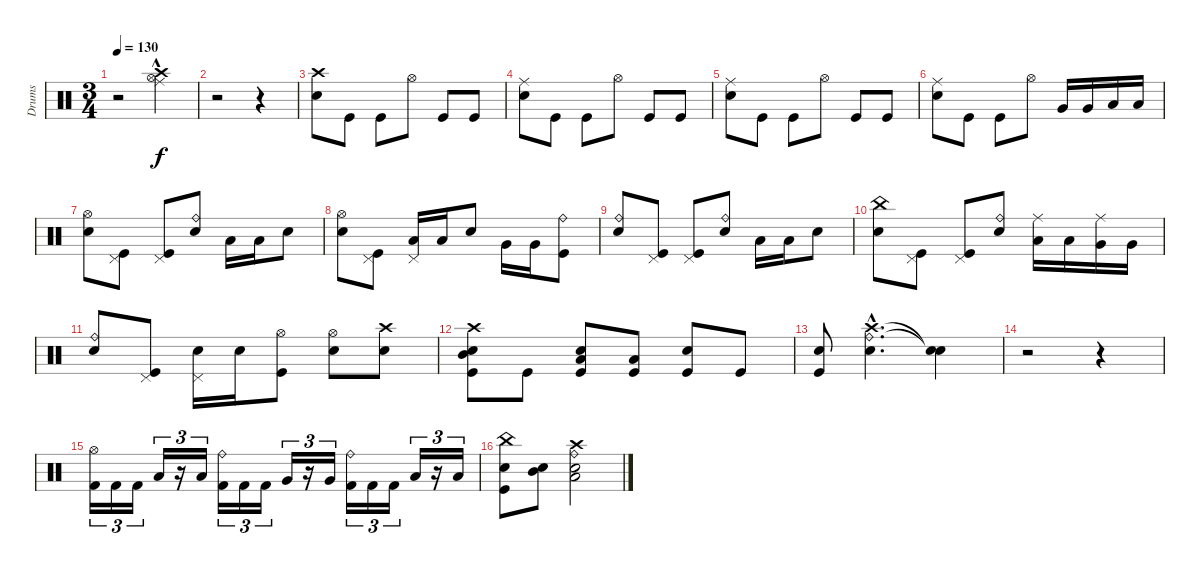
\track ("Drums" "Drums") {instrument percussion}
\staff {score}
\articulation defaults
\ts (3 4)
\tempo 130
\clef neutral
\ks c
r.2{dy f} ("Ride (middle)"{hac} "Hi-Hat (open)" "Crash high (hit)").4 |
r.2 r.4 |
("Crash high (hit)" "Snare (hit) 2").8 "Kick (hit)".8 "Kick (hit)".8 "Hi-Hat (open)".8 "Kick (hit)".8 "Kick (hit)".8 |
("Ride (middle)" "Snare (hit) 2").8 "Kick (hit)".8 "Kick (hit)".8 "Hi-Hat (open)".8 "Kick (hit)".8 "Kick (hit)".8 |
("Ride (middle)" "Snare (hit) 2").8 "Kick (hit)".8 "Kick (hit)".8 "Hi-Hat (open)".8 "Kick (hit)".8 "Kick (hit)".8 |
("Ride (middle)" "Snare (hit) 2").8 "Kick (hit)".8 "Kick (hit)".8 "Hi-Hat (open)".8 "Very Low Tom (hit)".16 "Very Low Tom (hit)".16 "Low Tom (hit)".16 "Low Tom (hit)".16 |
("Hi-Hat (open)" "Snare (hit) 2").8 ("Pedal Hi-Hat (hit)" "Kick (hit)").8 ("Pedal Hi-Hat (hit)" "Kick (hit)").8 ("Ride (bell)" "Snare (hit) 2").8 "Low Tom (hit)".16 "Low Tom (hit)".16 "Snare (hit) 2".8 |
("Hi-Hat (open)" "Snare (hit) 2").8 ("Pedal Hi-Hat (hit)" "Kick (hit)").8 ("Pedal Hi-Hat (hit)" "Low Tom (hit)").16 "Low Tom (hit)".16 "Snare (hit) 2".8 "Very Low Tom (hit)".16 "Very Low Tom (hit)".16 ("Ride (bell)" "Kick (hit)").8 |
("Ride (bell)" "Snare (hit) 2").8 ("Pedal Hi-Hat (hit)" "Kick (hit)").8 ("Pedal Hi-Hat (hit)" "Kick (hit)").8 ("Ride (bell)" "Snare (hit) 2").8 "Low Tom (hit)".16 "Low Tom (hit)".16 "Snare (hit) 2".8 |
("China (hit)" "Snare (hit) 2").8 ("Pedal Hi-Hat (hit)" "Kick (hit)").8 ("Pedal Hi-Hat (hit)" "Kick (hit)").8 ("Ride (bell)" "Snare (hit) 2").8 ("Ride (middle)" "Low Tom (hit)").16 "Low Tom (hit)".16 ("Ride (middle)" "Very Low Tom (hit)").16 "Very Low Tom (hit)".16 |
("Ride (bell)" "Snare (hit) 2").8 ("Pedal Hi-Hat (hit)" "Kick (hit)").8 ("Pedal Hi-Hat (hit)" "Snare (hit) 2").16 "Snare (hit) 2".16 ("Hi-Hat (open)" "Kick (hit)").8 ("Hi-Hat (open)" "Snare (hit) 2").8 ("Crash high (hit)" "Snare (hit) 2").8 |
("Crash high (hit)" "Mid Tom (hit)" "Snare (hit) 2" "Kick (hit)").8 "Kick (hit)".8 ("Low Tom (hit)" "Snare (hit) 2" "Kick (hit)").8 ("Low Tom (hit)" "Kick (hit)").8 ("Snare (hit) 2" "Kick (hit)").8 "Kick (hit)".8 |
("Kick (hit)" "Snare (hit) 2").8 ("Ride (bell)"{hac} "Crash high (hit)"{hac} "Snare (hit) 2"{hac}).4{d} ("Snare (hit)"{t} "Snare (hit)"{t}).4 |
r.2 r.4 |
("Hi-Hat (open)" "Kick (hit) 2").16{tu (3 2)} "Kick (hit) 2".16{tu (3 2)} "Kick (hit) 2".16{tu (3 2)} "Low Tom (hit)".16{tu (3 2)} r.16{tu (3 2)} "Low Tom (hit)".16{tu (3 2)} ("Ride (bell)" "Kick (hit) 2").16{tu (3 2)} "Kick (hit) 2".16{tu (3 2)} "Kick (hit) 2".16{tu (3 2)} "Very Low Tom (hit)".16{tu (3 2)} r.16{tu (3 2)} "Very Low Tom (hit)".16{tu (3 2)} ("Ride (bell)" "Kick (hit) 2").16{tu (3 2)} "Kick (hit) 2".16{tu (3 2)} "Kick (hit) 2".16{tu (3 2)} "Low Floor Tom (hit)".16{tu (3 2)} r.16{tu (3 2)} "Low Floor Tom (hit)".16{tu (3 2)} |
("China (hit)" "Kick (hit)" "Snare (hit) 2").8 ("Mid Tom (hit)" "Snare (hit) 2").8 ("Ride (bell)" "Crash high (hit)" "Low Tom (hit)" "Snare (hit) 2").2
